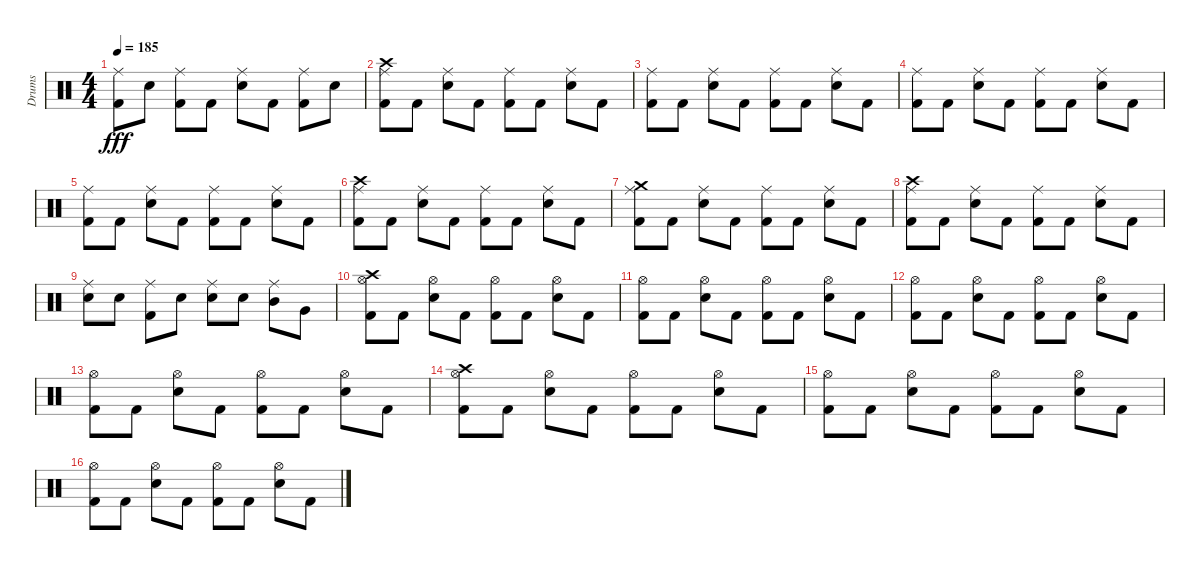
\track ("Drums" "Drums") {instrument percussion}
\staff {score}
\articulation defaults
\ts (4 4)
\tempo 185
\clef neutral
\ks c
("Kick (hit) 2" "Ride (middle)").8{dy fff} "Snare (hit) 2".8 ("Kick (hit) 2" "Ride (middle)").8 "Kick (hit) 2".8 ("Snare (hit) 2" "Ride (middle)").8 "Kick (hit) 2".8 ("Kick (hit) 2" "Ride (middle)").8 "Snare (hit) 2".8 |
("Kick (hit) 2" "Crash high (hit)" "Ride (middle)").8 "Kick (hit) 2".8 ("Snare (hit) 2" "Ride (middle)").8 "Kick (hit) 2".8 ("Kick (hit) 2" "Ride (middle)").8 "Kick (hit) 2".8 ("Snare (hit) 2" "Ride (middle)").8 "Kick (hit) 2".8 |
("Kick (hit) 2" "Ride (middle)").8 "Kick (hit) 2".8 ("Snare (hit) 2" "Ride (middle)").8 "Kick (hit) 2".8 ("Kick (hit) 2" "Ride (middle)").8 "Kick (hit) 2".8 ("Snare (hit) 2" "Ride (middle)").8 "Kick (hit) 2".8 |
("Kick (hit) 2" "Ride (middle)").8 "Kick (hit) 2".8 ("Snare (hit) 2" "Ride (middle)").8 "Kick (hit) 2".8 ("Kick (hit) 2" "Ride (middle)").8 "Kick (hit) 2".8 ("Snare (hit) 2" "Ride (middle)").8 "Kick (hit) 2".8 |
("Kick (hit) 2" "Ride (middle)").8 "Kick (hit) 2".8 ("Snare (hit) 2" "Ride (middle)").8 "Kick (hit) 2".8 ("Kick (hit) 2" "Ride (middle)").8 "Kick (hit) 2".8 ("Snare (hit) 2" "Ride (middle)").8 "Kick (hit) 2".8 |
("Kick (hit) 2" "Crash high (hit)" "Ride (middle)").8 "Kick (hit) 2".8 ("Snare (hit) 2" "Ride (middle)").8 "Kick (hit) 2".8 ("Kick (hit) 2" "Ride (middle)").8 "Kick (hit) 2".8 ("Snare (hit) 2" "Ride (middle)").8 "Kick (hit) 2".8 |
("Kick (hit) 2" "Crash medium (hit)" "Ride (middle)").8 "Kick (hit) 2".8 ("Snare (hit) 2" "Ride (middle)").8 "Kick (hit) 2".8 ("Kick (hit) 2" "Ride (middle)").8 "Kick (hit) 2".8 ("Snare (hit) 2" "Ride (middle)").8 "Kick (hit) 2".8 |
("Kick (hit) 2" "Crash high (hit)" "Ride (middle)").8 "Kick (hit) 2".8 ("Snare (hit) 2" "Ride (middle)").8 "Kick (hit) 2".8 ("Kick (hit) 2" "Ride (middle)").8 "Kick (hit) 2".8 ("Snare (hit) 2" "Ride (middle)").8 "Kick (hit) 2".8 |
("Snare (hit) 2" "Ride (middle)").8 "Snare (hit) 2".8 ("Kick (hit) 2" "Ride (middle)").8 "Snare (hit) 2".8 ("Snare (hit) 2" "Ride (middle)").8 "Snare (hit) 2".8 ("Mid Tom (hit)" "Ride (middle)").8 "Very Low Tom (hit)".8 |
("Kick (hit) 2" "Crash high (hit)" "Hi-Hat (open)").8{volume 12} "Kick (hit) 2".8 ("Snare (hit) 2" "Hi-Hat (open)").8 "Kick (hit) 2".8 ("Kick (hit) 2" "Hi-Hat (open)").8 "Kick (hit) 2".8 ("Snare (hit) 2" "Hi-Hat (open)").8 "Kick (hit) 2".8 |
("Kick (hit) 2" "Hi-Hat (open)").8 "Kick (hit) 2".8 ("Snare (hit) 2" "Hi-Hat (open)").8 "Kick (hit) 2".8 ("Kick (hit) 2" "Hi-Hat (open)").8 "Kick (hit) 2".8 ("Snare (hit) 2" "Hi-Hat (open)").8 "Kick (hit) 2".8 |
("Kick (hit) 2" "Hi-Hat (open)").8{volume 11} "Kick (hit) 2".8 ("Snare (hit) 2" "Hi-Hat (open)").8 "Kick (hit) 2".8 ("Kick (hit) 2" "Hi-Hat (open)").8 "Kick (hit) 2".8 ("Snare (hit) 2" "Hi-Hat (open)").8 "Kick (hit) 2".8 |
("Kick (hit) 2" "Hi-Hat (open)").8 "Kick (hit) 2".8 ("Snare (hit) 2" "Hi-Hat (open)").8 "Kick (hit) 2".8 ("Kick (hit) 2" "Hi-Hat (open)").8 "Kick (hit) 2".8 ("Snare (hit) 2" "Hi-Hat (open)").8{volume 10} "Kick (hit) 2".8 |
("Kick (hit) 2" "Crash high (hit)" "Hi-Hat (open)").8 "Kick (hit) 2".8 ("Snare (hit) 2" "Hi-Hat (open)").8 "Kick (hit) 2".8 ("Kick (hit) 2" "Hi-Hat (open)").8 "Kick (hit) 2".8 ("Snare (hit) 2" "Hi-Hat (open)").8 "Kick (hit) 2".8 |
("Kick (hit) 2" "Hi-Hat (open)").8 "Kick (hit) 2".8 ("Snare (hit) 2" "Hi-Hat (open)").8 "Kick (hit) 2".8 ("Kick (hit) 2" "Hi-Hat (open)").8 "Kick (hit) 2".8 ("Snare (hit) 2" "Hi-Hat (open)").8 "Kick (hit) 2".8{volume 9} |
("Kick (hit) 2" "Hi-Hat (open)").8 "Kick (hit) 2".8 ("Snare (hit) 2" "Hi-Hat (open)").8 "Kick (hit) 2".8 ("Kick (hit) 2" "Hi-Hat (open)").8 "Kick (hit) 2".8 ("Snare (hit) 2" "Hi-Hat (open)").8 "Kick (hit) 2".8
